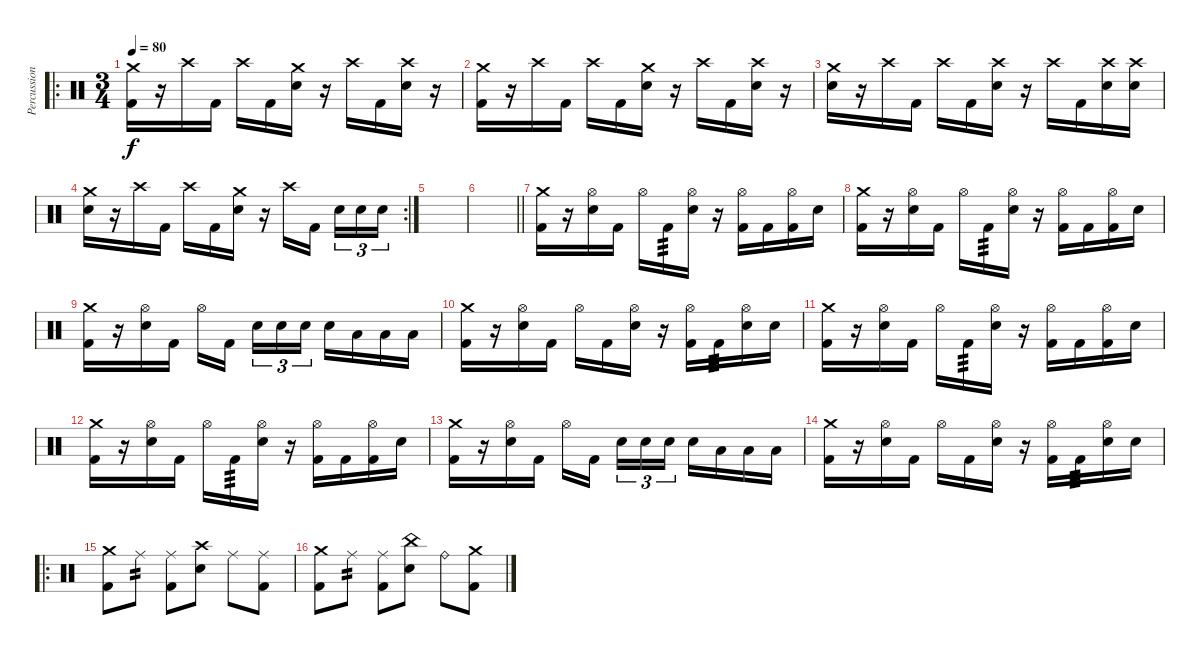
\track ("Percussion" "Percussion") {instrument percussion}
\staff {score}
\articulation defaults
\ro
\ts (3 4)
\tempo 80
\clef neutral
\ks c
("Crash medium (hit)" "Kick (hit) 2").16{dy f} r.16 "Crash high (hit)".16 "Kick (hit) 2".16 "Crash high (hit)".16 "Kick (hit) 2".16 ("Crash medium (hit)" "Electric Snare (hit)").16 r.16 "Crash high (hit)".16 "Kick (hit) 2".16 ("Crash high (hit)" "Electric Snare (hit)").16 r.16 |
("Crash medium (hit)" "Kick (hit) 2").16 r.16 "Crash high (hit)".16 "Kick (hit) 2".16 "Crash high (hit)".16 "Kick (hit) 2".16 ("Crash medium (hit)" "Electric Snare (hit)").16 r.16 "Crash high (hit)".16 "Kick (hit) 2".16 ("Crash high (hit)" "Electric Snare (hit)").16 r.16 |
("Crash medium (hit)" "Electric Snare (hit)").16 r.16 "Crash high (hit)".16 "Kick (hit) 2".16 "Crash high (hit)".16 "Kick (hit) 2".16 ("Crash high (hit)" "Electric Snare (hit)").16 r.16 "Crash high (hit)".16 "Kick (hit) 2".16 ("Crash high (hit)" "Electric Snare (hit)").16 ("Crash high (hit)" "Electric Snare (hit)").16 |
\rc 2
("Crash medium (hit)" "Electric Snare (hit)").16 r.16 "Crash high (hit)".16 "Kick (hit) 2".16 "Crash high (hit)".16 "Kick (hit) 2".16 ("Crash medium (hit)" "Electric Snare (hit)").16 r.16 "Crash high (hit)".16 "Kick (hit) 2".16{beam splitsecondary} "Electric Snare (hit)".16{tu (3 2)} "Electric Snare (hit)".16{tu (3 2)} "Electric Snare (hit)".16{tu (3 2)} |
|
\barLineRight lightlight
|
("Kick (hit) 2" "Crash medium (hit)").16 r.16 ("Electric Snare (hit)" "Hi-Hat (open)").16 "Kick (hit) 2".16 "Hi-Hat (open)".16 "Kick (hit) 2".16{tp 3} ("Electric Snare (hit)" "Hi-Hat (open)").16 r.16 ("Kick (hit) 2" "Hi-Hat (open)").16 "Kick (hit) 2".16 ("Kick (hit) 2" "Hi-Hat (open)").16 "Electric Snare (hit)".16 |
("Kick (hit) 2" "Crash medium (hit)").16 r.16 ("Electric Snare (hit)" "Hi-Hat (open)").16 "Kick (hit) 2".16 "Hi-Hat (open)".16 "Kick (hit) 2".16{tp 3} ("Electric Snare (hit)" "Hi-Hat (open)").16 r.16 ("Kick (hit) 2" "Hi-Hat (open)").16 "Kick (hit) 2".16 ("Kick (hit) 2" "Hi-Hat (open)").16 "Electric Snare (hit)".16 |
("Kick (hit) 2" "Crash medium (hit)").16 r.16 ("Electric Snare (hit)" "Hi-Hat (open)").16 "Kick (hit) 2".16 "Hi-Hat (open)".16 "Kick (hit) 2".16{beam splitsecondary} "Electric Snare (hit)".16{tu (3 2)} "Electric Snare (hit)".16{tu (3 2)} "Electric Snare (hit)".16{tu (3 2)} "Electric Snare (hit)".16 "Low Tom (hit)".16 "Low Tom (hit)".16 "Low Tom (hit)".16 |
("Kick (hit) 2" "Crash medium (hit)").16 r.16 ("Electric Snare (hit)" "Hi-Hat (open)").16 "Kick (hit) 2".16 "Hi-Hat (open)".16 "Kick (hit) 2".16 ("Electric Snare (hit)" "Hi-Hat (open)").16 r.16 ("Kick (hit) 2" "Hi-Hat (open)").16 "Kick (hit) 2".16{tp 3} ("Electric Snare (hit)" "Hi-Hat (open)").16 "Electric Snare (hit)".16 |
("Kick (hit) 2" "Crash medium (hit)").16 r.16 ("Electric Snare (hit)" "Hi-Hat (open)").16 "Kick (hit) 2".16 "Hi-Hat (open)".16 "Kick (hit) 2".16{tp 3} ("Electric Snare (hit)" "Hi-Hat (open)").16 r.16 ("Kick (hit) 2" "Hi-Hat (open)").16 "Kick (hit) 2".16 ("Kick (hit) 2" "Hi-Hat (open)").16 "Electric Snare (hit)".16 |
("Kick (hit) 2" "Crash medium (hit)").16 r.16 ("Electric Snare (hit)" "Hi-Hat (open)").16 "Kick (hit) 2".16 "Hi-Hat (open)".16 "Kick (hit) 2".16{tp 3} ("Electric Snare (hit)" "Hi-Hat (open)").16 r.16 ("Kick (hit) 2" "Hi-Hat (open)").16 "Kick (hit) 2".16 ("Kick (hit) 2" "Hi-Hat (open)").16 "Electric Snare (hit)".16 |
("Kick (hit) 2" "Crash medium (hit)").16 r.16 ("Electric Snare (hit)" "Hi-Hat (open)").16 "Kick (hit) 2".16 "Hi-Hat (open)".16 "Kick (hit) 2".16{beam splitsecondary} "Electric Snare (hit)".16{tu (3 2)} "Electric Snare (hit)".16{tu (3 2)} "Electric Snare (hit)".16{tu (3 2)} "Electric Snare (hit)".16 "Low Tom (hit)".16 "Low Tom (hit)".16 "Low Tom (hit)".16 |
("Kick (hit) 2" "Crash medium (hit)").16 r.16 ("Electric Snare (hit)" "Hi-Hat (open)").16 "Kick (hit) 2".16 "Hi-Hat (open)".16 "Kick (hit) 2".16 ("Electric Snare (hit)" "Hi-Hat (open)").16 r.16 ("Kick (hit) 2" "Hi-Hat (open)").16 "Kick (hit) 2".16{tp 3} ("Electric Snare (hit)" "Hi-Hat (open)").16 "Electric Snare (hit)".16 |
\ro
("Crash medium (hit)" "Kick (hit) 2").8 "Ride (middle)".8{tp 2} ("Ride (middle)" "Kick (hit) 2").8 ("Crash high (hit)" "Electric Snare (hit)").8 "Ride (middle)".8 ("Ride (middle)" "Kick (hit) 2").8 |
("Crash medium (hit)" "Kick (hit) 2").8 "Ride (middle)".8{tp 2} ("Ride (middle)" "Kick (hit) 2").8 ("China (hit)" "Electric Snare (hit)").8 "Ride (bell)".8 ("Crash medium (hit)" "Kick (hit) 2").8
